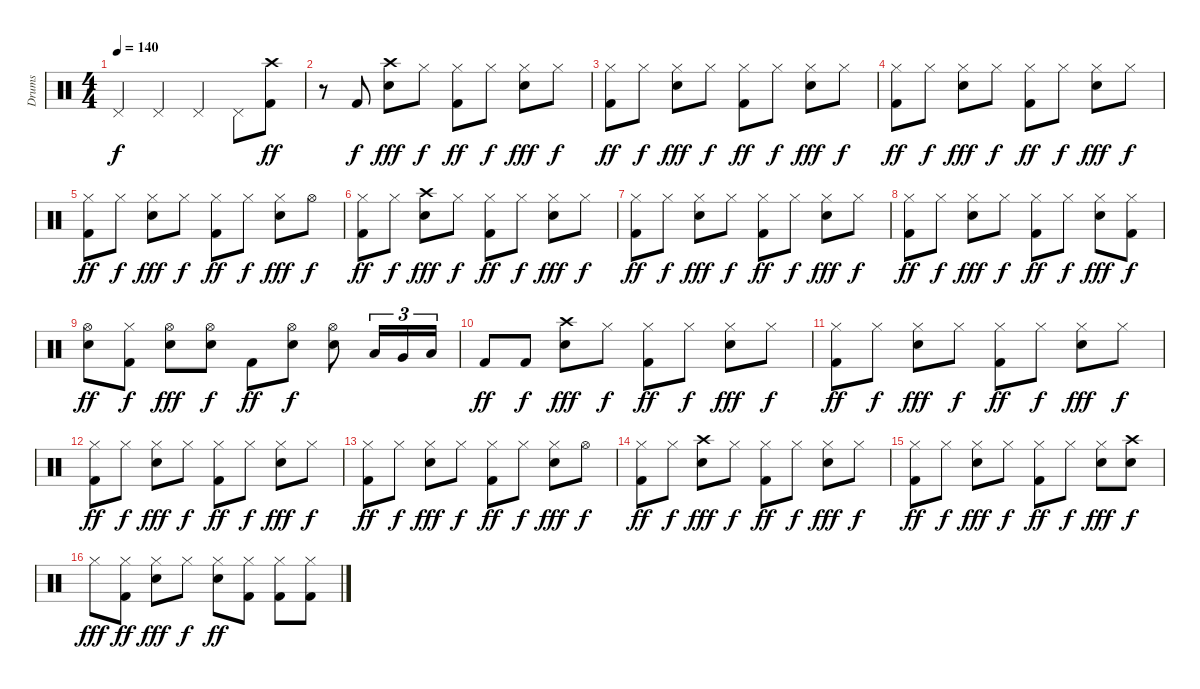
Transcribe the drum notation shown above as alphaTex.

\track ("Drums" "Drums") {instrument percussion}
\staff {score}
\articulation defaults
\ts (4 4)
\tempo 140
\clef neutral
\ks c "Pedal Hi-Hat (hit)".4{dy f} "Pedal Hi-Hat (hit)".4 "Pedal Hi-Hat (hit)".4 "Pedal Hi-Hat (hit)".8
("Crash high (hit)" "Kick (hit) 2").8{dy ff} |
r.8 "Kick (hit) 2".8{dy f} ("Crash high (hit)" "Snare (hit) 2").8{dy fff} "Hi-Hat (closed)".8{dy f} ("Hi-Hat (closed)" "Kick (hit) 2").8{dy ff} "Hi-Hat (closed)".8{dy f} ("Hi-Hat (closed)" "Snare (hit) 2").8{dy fff} "Hi-Hat (closed)".8{dy f} |
("Hi-Hat (closed)" "Kick (hit) 2").8{dy ff} "Hi-Hat (closed)".8{dy f} ("Hi-Hat (closed)" "Snare (hit) 2").8{dy fff} "Hi-Hat (closed)".8{dy f} ("Hi-Hat (closed)" "Kick (hit) 2").8{dy ff} "Hi-Hat (closed)".8{dy f} ("Hi-Hat (closed)" "Snare (hit) 2").8{dy fff} "Hi-Hat (closed)".8{dy f} |
("Hi-Hat (closed)" "Kick (hit) 2").8{dy ff} "Hi-Hat (closed)".8{dy f} ("Hi-Hat (closed)" "Snare (hit) 2").8{dy fff} "Hi-Hat (closed)".8{dy f} ("Hi-Hat (closed)" "Kick (hit) 2").8{dy ff} "Hi-Hat (closed)".8{dy f} ("Hi-Hat (closed)" "Snare (hit) 2").8{dy fff} "Hi-Hat (closed)".8{dy f} |
("Hi-Hat (closed)" "Kick (hit) 2").8{dy ff} "Hi-Hat (closed)".8{dy f} ("Hi-Hat (closed)" "Snare (hit) 2").8{dy fff} "Hi-Hat (closed)".8{dy f} ("Hi-Hat (closed)" "Kick (hit) 2").8{dy ff} "Hi-Hat (closed)".8{dy f} ("Hi-Hat (closed)" "Snare (hit) 2").8{dy fff} "Hi-Hat (open)".8{dy f} |
("Hi-Hat (closed)" "Kick (hit) 2").8{dy ff} "Hi-Hat (closed)".8{dy f} ("Crash high (hit)" "Snare (hit) 2").8{dy fff} "Hi-Hat (closed)".8{dy f} ("Hi-Hat (closed)" "Kick (hit) 2").8{dy ff} "Hi-Hat (closed)".8{dy f} ("Hi-Hat (closed)" "Snare (hit) 2").8{dy fff} "Hi-Hat (closed)".8{dy f} |
("Hi-Hat (closed)" "Kick (hit) 2").8{dy ff} "Hi-Hat (closed)".8{dy f} ("Hi-Hat (closed)" "Snare (hit) 2").8{dy fff} "Hi-Hat (closed)".8{dy f} ("Hi-Hat (closed)" "Kick (hit) 2").8{dy ff} "Hi-Hat (closed)".8{dy f} ("Hi-Hat (closed)" "Snare (hit) 2").8{dy fff} "Hi-Hat (closed)".8{dy f} |
("Hi-Hat (closed)" "Kick (hit) 2").8{dy ff} "Hi-Hat (closed)".8{dy f} ("Hi-Hat (closed)" "Snare (hit) 2").8{dy fff} "Hi-Hat (closed)".8{dy f} ("Hi-Hat (closed)" "Kick (hit) 2").8{dy ff} "Hi-Hat (closed)".8{dy f} ("Hi-Hat (closed)" "Snare (hit) 2").8{dy fff} ("Hi-Hat (closed)" "Kick (hit) 2").8{dy f} |
("Hi-Hat (open)" "Snare (hit) 2").8{dy ff} ("Hi-Hat (closed)" "Kick (hit) 2").8{dy f} ("Hi-Hat (open)" "Snare (hit) 2").8{dy fff} ("Hi-Hat (open)" "Snare (hit) 2").8{dy f} "Kick (hit) 2".8{dy ff} ("Hi-Hat (open)" "Snare (hit) 2").8{dy f} ("Hi-Hat (open)" "Snare (hit) 2").8 "Low Tom (hit)".16{tu (3 2)} "Very Low Tom (hit)".16{tu (3 2)} "Low Floor Tom (hit)".16{tu (3 2)} |
"Kick (hit) 2".8{dy ff} "Kick (hit) 2".8{dy f} ("Crash high (hit)" "Snare (hit) 2").8{dy fff} "Hi-Hat (closed)".8{dy f} ("Hi-Hat (closed)" "Kick (hit) 2").8{dy ff} "Hi-Hat (closed)".8{dy f} ("Hi-Hat (closed)" "Snare (hit) 2").8{dy fff} "Hi-Hat (closed)".8{dy f} |
("Hi-Hat (closed)" "Kick (hit) 2").8{dy ff} "Hi-Hat (closed)".8{dy f} ("Hi-Hat (closed)" "Snare (hit) 2").8{dy fff} "Hi-Hat (closed)".8{dy f} ("Hi-Hat (closed)" "Kick (hit) 2").8{dy ff} "Hi-Hat (closed)".8{dy f} ("Hi-Hat (closed)" "Snare (hit) 2").8{dy fff} "Hi-Hat (closed)".8{dy f} |
("Hi-Hat (closed)" "Kick (hit) 2").8{dy ff} "Hi-Hat (closed)".8{dy f} ("Hi-Hat (closed)" "Snare (hit) 2").8{dy fff} "Hi-Hat (closed)".8{dy f} ("Hi-Hat (closed)" "Kick (hit) 2").8{dy ff} "Hi-Hat (closed)".8{dy f} ("Hi-Hat (closed)" "Snare (hit) 2").8{dy fff} "Hi-Hat (closed)".8{dy f} |
("Hi-Hat (closed)" "Kick (hit) 2").8{dy ff} "Hi-Hat (closed)".8{dy f} ("Hi-Hat (closed)" "Snare (hit) 2").8{dy fff} "Hi-Hat (closed)".8{dy f} ("Hi-Hat (closed)" "Kick (hit) 2").8{dy ff} "Hi-Hat (closed)".8{dy f} ("Hi-Hat (closed)" "Snare (hit) 2").8{dy fff} "Hi-Hat (open)".8{dy f} |
("Hi-Hat (closed)" "Kick (hit) 2").8{dy ff} "Hi-Hat (closed)".8{dy f} ("Crash high (hit)" "Snare (hit) 2").8{dy fff} "Hi-Hat (closed)".8{dy f} ("Hi-Hat (closed)" "Kick (hit) 2").8{dy ff} "Hi-Hat (closed)".8{dy f} ("Hi-Hat (closed)" "Snare (hit) 2").8{dy fff} "Hi-Hat (closed)".8{dy f} |
("Hi-Hat (closed)" "Kick (hit) 2").8{dy ff} "Hi-Hat (closed)".8{dy f} ("Hi-Hat (closed)" "Snare (hit) 2").8{dy fff} "Hi-Hat (closed)".8{dy f} ("Hi-Hat (closed)" "Kick (hit) 2").8{dy ff} "Hi-Hat (closed)".8{dy f} ("Hi-Hat (closed)" "Snare (hit) 2").8{dy fff} ("Crash high (hit)" "Snare (hit) 2").8{dy f} |
"Hi-Hat (closed)".8{dy fff} ("Hi-Hat (closed)" "Kick (hit) 2").8{dy ff} ("Hi-Hat (closed)" "Snare (hit) 2").8{dy fff} "Hi-Hat (closed)".8{dy f} ("Hi-Hat (closed)" "Snare (hit) 2").8{dy ff} ("Hi-Hat (closed)" "Kick (hit) 2").8 ("Hi-Hat (closed)" "Kick (hit) 2").8 ("Hi-Hat (closed)" "Kick (hit) 2").8
